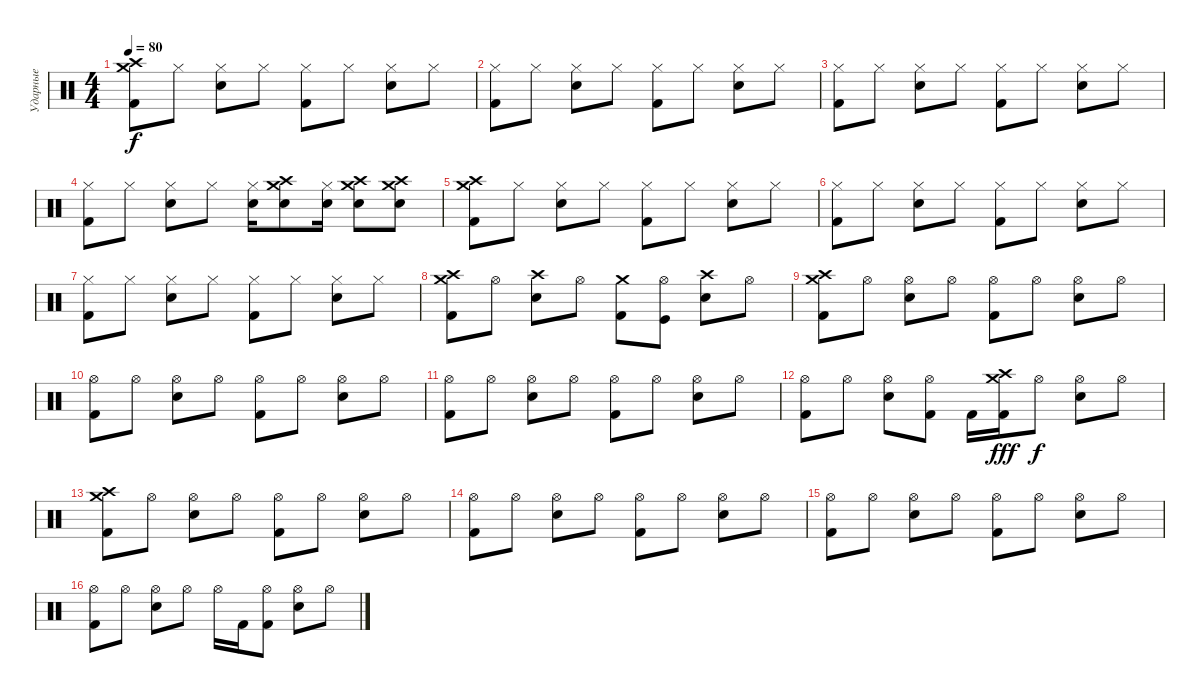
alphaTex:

\track ("Ударные" "Ударные") {instrument percussion}
\staff {score}
\articulation defaults
\ts (4 4)
\tempo 80
\clef neutral
\ks c
("Crash high (hit)" "Crash medium (hit)" "Kick (hit) 2").8{dy f} "Hi-Hat (closed)".8 ("Hi-Hat (closed)" "Snare (hit) 2").8 "Hi-Hat (closed)".8 ("Hi-Hat (closed)" "Kick (hit) 2").8 "Hi-Hat (closed)".8 ("Hi-Hat (closed)" "Snare (hit) 2").8 "Hi-Hat (closed)".8 |
("Hi-Hat (closed)" "Kick (hit) 2").8 "Hi-Hat (closed)".8 ("Hi-Hat (closed)" "Snare (hit) 2").8 "Hi-Hat (closed)".8 ("Hi-Hat (closed)" "Kick (hit) 2").8 "Hi-Hat (closed)".8 ("Hi-Hat (closed)" "Snare (hit) 2").8 "Hi-Hat (closed)".8 |
("Hi-Hat (closed)" "Kick (hit) 2").8 "Hi-Hat (closed)".8 ("Hi-Hat (closed)" "Snare (hit) 2").8 "Hi-Hat (closed)".8 ("Hi-Hat (closed)" "Kick (hit) 2").8 "Hi-Hat (closed)".8 ("Hi-Hat (closed)" "Snare (hit) 2").8 "Hi-Hat (closed)".8 |
("Hi-Hat (closed)" "Kick (hit) 2").8 "Hi-Hat (closed)".8 ("Hi-Hat (closed)" "Snare (hit) 2").8 "Hi-Hat (closed)".8 ("Hi-Hat (closed)" "Snare (hit) 2").16 ("Crash high (hit)" "Crash medium (hit)" "Snare (hit) 2").8 ("Hi-Hat (closed)" "Snare (hit) 2").16 ("Crash high (hit)" "Snare (hit) 2" "Crash medium (hit)").8 ("Crash high (hit)" "Crash medium (hit)" "Snare (hit) 2").8 |
("Crash high (hit)" "Crash medium (hit)" "Kick (hit) 2").8 "Hi-Hat (closed)".8 ("Hi-Hat (closed)" "Snare (hit) 2").8 "Hi-Hat (closed)".8 ("Hi-Hat (closed)" "Kick (hit) 2").8 "Hi-Hat (closed)".8 ("Hi-Hat (closed)" "Snare (hit) 2").8 "Hi-Hat (closed)".8 |
("Hi-Hat (closed)" "Kick (hit) 2").8 "Hi-Hat (closed)".8 ("Hi-Hat (closed)" "Snare (hit) 2").8 "Hi-Hat (closed)".8 ("Hi-Hat (closed)" "Kick (hit) 2").8 "Hi-Hat (closed)".8 ("Hi-Hat (closed)" "Snare (hit) 2").8 "Hi-Hat (closed)".8 |
("Hi-Hat (closed)" "Kick (hit) 2").8 "Hi-Hat (closed)".8 ("Hi-Hat (closed)" "Snare (hit) 2").8 "Hi-Hat (closed)".8 ("Hi-Hat (closed)" "Kick (hit) 2").8 "Hi-Hat (closed)".8 ("Hi-Hat (closed)" "Snare (hit) 2").8 "Hi-Hat (closed)".8 |
("Crash high (hit)" "Crash medium (hit)" "Kick (hit) 2").8 "Hi-Hat (open)".8 ("Crash high (hit)" "Snare (hit) 2").8 "Hi-Hat (open)".8 ("Crash medium (hit)" "Kick (hit) 2").8 ("Hi-Hat (open)" "Kick (hit)").8 ("Crash high (hit)" "Snare (hit) 2").8 "Hi-Hat (open)".8 |
("Crash high (hit)" "Crash medium (hit)" "Kick (hit) 2").8 "Hi-Hat (open)".8 ("Hi-Hat (open)" "Snare (hit) 2").8 "Hi-Hat (open)".8 ("Hi-Hat (open)" "Kick (hit) 2").8 "Hi-Hat (open)".8 ("Hi-Hat (open)" "Snare (hit) 2").8 "Hi-Hat (open)".8 |
("Hi-Hat (open)" "Kick (hit) 2").8 "Hi-Hat (open)".8 ("Hi-Hat (open)" "Snare (hit) 2").8 "Hi-Hat (open)".8 ("Hi-Hat (open)" "Kick (hit) 2").8 "Hi-Hat (open)".8 ("Hi-Hat (open)" "Snare (hit) 2").8 "Hi-Hat (open)".8 |
("Hi-Hat (open)" "Kick (hit) 2").8 "Hi-Hat (open)".8 ("Hi-Hat (open)" "Snare (hit) 2").8 "Hi-Hat (open)".8 ("Hi-Hat (open)" "Kick (hit) 2").8 "Hi-Hat (open)".8 ("Hi-Hat (open)" "Snare (hit) 2").8 "Hi-Hat (open)".8 |
("Hi-Hat (open)" "Kick (hit) 2").8 "Hi-Hat (open)".8 ("Hi-Hat (open)" "Snare (hit) 2").8 ("Hi-Hat (open)" "Kick (hit) 2").8 "Kick (hit) 2".16 ("Crash medium (hit)" "Crash high (hit)" "Kick (hit) 2").16{dy fff} "Hi-Hat (open)".8{dy f} ("Hi-Hat (open)" "Snare (hit) 2").8 "Hi-Hat (open)".8 |
("Crash high (hit)" "Crash medium (hit)" "Kick (hit) 2").8 "Hi-Hat (open)".8 ("Hi-Hat (open)" "Snare (hit) 2").8 "Hi-Hat (open)".8 ("Hi-Hat (open)" "Kick (hit) 2").8 "Hi-Hat (open)".8 ("Hi-Hat (open)" "Snare (hit) 2").8 "Hi-Hat (open)".8 |
("Hi-Hat (open)" "Kick (hit) 2").8 "Hi-Hat (open)".8 ("Hi-Hat (open)" "Snare (hit) 2").8 "Hi-Hat (open)".8 ("Hi-Hat (open)" "Kick (hit) 2").8 "Hi-Hat (open)".8 ("Hi-Hat (open)" "Snare (hit) 2").8 "Hi-Hat (open)".8 |
("Hi-Hat (open)" "Kick (hit) 2").8 "Hi-Hat (open)".8 ("Hi-Hat (open)" "Snare (hit) 2").8 "Hi-Hat (open)".8 ("Hi-Hat (open)" "Kick (hit) 2").8 "Hi-Hat (open)".8 ("Hi-Hat (open)" "Snare (hit) 2").8 "Hi-Hat (open)".8 |
("Hi-Hat (open)" "Kick (hit) 2").8 "Hi-Hat (open)".8 ("Hi-Hat (open)" "Snare (hit) 2").8 "Hi-Hat (open)".8 "Hi-Hat (open)".16 "Kick (hit) 2".16 ("Hi-Hat (open)" "Kick (hit) 2").8 ("Hi-Hat (open)" "Snare (hit) 2").8 "Hi-Hat (open)".8
